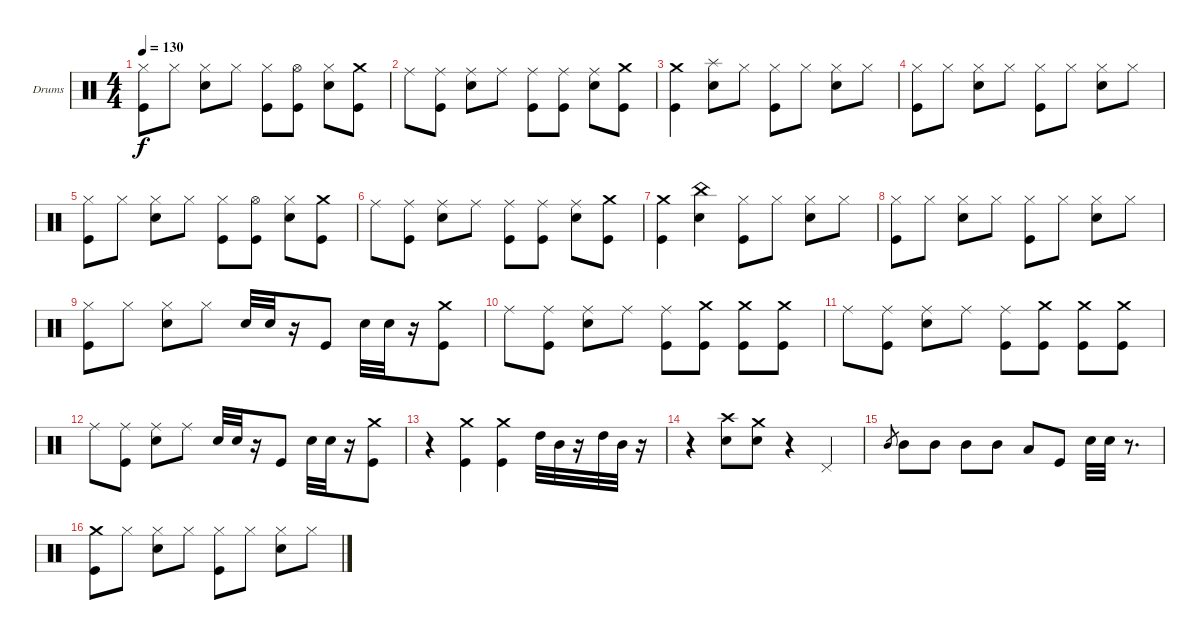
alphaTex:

\defaultSystemsLayout 4
\bracketExtendMode groupsimilarinstruments
\firstSystemTrackNameOrientation horizontal
\otherSystemsTrackNameOrientation horizontal
\track ("Stefan Kaufmann" "Drums") {instrument percussion}
\staff {score}
\articulation defaults
\ts (4 4)
\tempo 130
\clef neutral
\ks c
("Hi-Hat (closed)" "Kick (hit)").8{dy f} "Hi-Hat (closed)".8 ("Hi-Hat (closed)" "Snare (hit) 2").8 "Hi-Hat (closed)".8 ("Hi-Hat (closed)" "Kick (hit)").8 ("Hi-Hat (open)" "Kick (hit)").8 ("Hi-Hat (closed)" "Snare (hit) 2").8 ("Crash medium (hit)" "Kick (hit)").8 |
"Ride (middle)".8 ("Ride (middle)" "Kick (hit)").8 ("Ride (middle)" "Snare (hit) 2").8 "Ride (middle)".8 ("Ride (middle)" "Kick (hit)").8 ("Ride (middle)" "Kick (hit)").8 ("Ride (middle)" "Snare (hit) 2").8 ("Crash medium (hit)" "Kick (hit)").8 |
("Crash medium (hit)" "Kick (hit)").4 ("Splash (hit)" "Snare (hit) 2").8 "Hi-Hat (closed)".8 ("Hi-Hat (closed)" "Kick (hit)").8 "Hi-Hat (closed)".8 ("Hi-Hat (closed)" "Snare (hit) 2").8 "Hi-Hat (closed)".8 |
("Hi-Hat (closed)" "Kick (hit)").8 "Hi-Hat (closed)".8 ("Hi-Hat (closed)" "Snare (hit) 2").8 "Hi-Hat (closed)".8 ("Hi-Hat (closed)" "Kick (hit)").8 "Hi-Hat (closed)".8 ("Hi-Hat (closed)" "Snare (hit) 2").8 "Hi-Hat (closed)".8 |
("Hi-Hat (closed)" "Kick (hit)").8 "Hi-Hat (closed)".8 ("Hi-Hat (closed)" "Snare (hit) 2").8 "Hi-Hat (closed)".8 ("Hi-Hat (closed)" "Kick (hit)").8 ("Hi-Hat (open)" "Kick (hit)").8 ("Hi-Hat (closed)" "Snare (hit) 2").8 ("Crash medium (hit)" "Kick (hit)").8 |
"Ride (middle)".8 ("Ride (middle)" "Kick (hit)").8 ("Ride (middle)" "Snare (hit) 2").8 "Ride (middle)".8 ("Ride (middle)" "Kick (hit)").8 ("Ride (middle)" "Kick (hit)").8 ("Ride (middle)" "Snare (hit) 2").8 ("Crash medium (hit)" "Kick (hit)").8 |
("Crash medium (hit)" "Kick (hit)").4 ("China (hit)" "Snare (hit) 2").4 ("Hi-Hat (closed)" "Kick (hit)").8 "Hi-Hat (closed)".8 ("Hi-Hat (closed)" "Snare (hit) 2").8 "Hi-Hat (closed)".8 |
("Hi-Hat (closed)" "Kick (hit)").8 "Hi-Hat (closed)".8 ("Hi-Hat (closed)" "Snare (hit) 2").8 "Hi-Hat (closed)".8 ("Hi-Hat (closed)" "Kick (hit)").8 "Hi-Hat (closed)".8 ("Hi-Hat (closed)" "Snare (hit) 2").8 "Hi-Hat (closed)".8 |
("Hi-Hat (closed)" "Kick (hit)").8 "Hi-Hat (closed)".8 ("Hi-Hat (closed)" "Snare (hit) 2").8 "Hi-Hat (closed)".8 "Snare (hit) 2".32 "Snare (hit) 2".32 r.16 "Kick (hit)".8 "Snare (hit) 2".32 "Snare (hit) 2".32 r.16 ("Crash medium (hit)" "Kick (hit)").8 |
"Ride (middle)".8 ("Ride (middle)" "Kick (hit)").8 ("Ride (middle)" "Snare (hit) 2").8 "Ride (middle)".8 ("Ride (middle)" "Kick (hit)").8 ("Crash medium (hit)" "Kick (hit)").8 ("Crash medium (hit)" "Kick (hit)").8 ("Crash medium (hit)" "Kick (hit)").8 |
"Ride (middle)".8 ("Ride (middle)" "Kick (hit)").8 ("Ride (middle)" "Snare (hit) 2").8 "Ride (middle)".8 ("Ride (middle)" "Kick (hit)").8 ("Crash medium (hit)" "Kick (hit)").8 ("Crash medium (hit)" "Kick (hit)").8 ("Crash medium (hit)" "Kick (hit)").8 |
"Ride (middle)".8 ("Ride (middle)" "Kick (hit)").8 ("Ride (middle)" "Snare (hit) 2").8 "Ride (middle)".8 "Snare (hit) 2".32 "Snare (hit) 2".32 r.16 "Kick (hit)".8 "Snare (hit) 2".32 "Snare (hit) 2".32 r.16 ("Crash medium (hit)" "Kick (hit)").8 |
r.4 ("Crash medium (hit)" "Kick (hit)").4 ("Crash medium (hit)" "Kick (hit)").4 "High Tom (hit)".32 "Mid Tom (hit)".32 r.16 "High Tom (hit)".32 "Mid Tom (hit)".32 r.16 |
r.4 ("Crash high (hit)" "Snare (hit) 2").8 ("Crash medium (hit)" "Snare (hit) 2").8 r.4 "Pedal Hi-Hat (hit)".4 |
"Mid Tom (hit)".8{gr} "Mid Tom (hit)".8 "Mid Tom (hit)".8 "Mid Tom (hit)".8 "Mid Tom (hit)".8 "Low Tom (hit)".8 "Kick (hit)".8 "Snare (hit) 2".32 "Snare (hit) 2".32 r.8{d} |
("Crash medium (hit)" "Kick (hit)").8 "Hi-Hat (closed)".8 ("Hi-Hat (closed)" "Snare (hit) 2").8 "Hi-Hat (closed)".8 ("Hi-Hat (closed)" "Kick (hit)").8 "Hi-Hat (closed)".8 ("Hi-Hat (closed)" "Snare (hit) 2").8 "Hi-Hat (closed)".8
